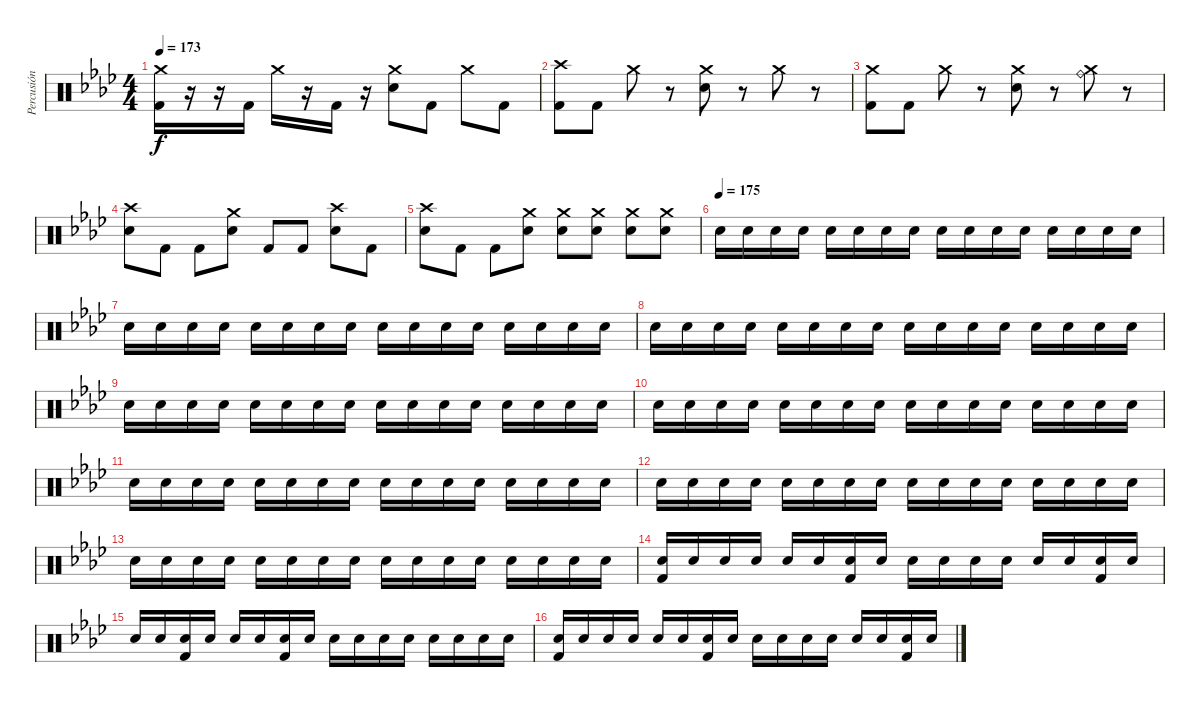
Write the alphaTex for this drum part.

\track ("Percusión" "Percusión") {instrument percussion}
\staff {score}
\articulation defaults
\ts (4 4)
\tempo 173
\clef neutral
\ks fminor
("Kick (hit) 2" "Crash medium (hit)").16{dy f} r.16 r.16 "Kick (hit) 2".16 "Crash medium (hit)".16 r.16 "Kick (hit) 2".16 r.16 ("Snare (hit) 2" "Crash medium (hit)").8 "Kick (hit) 2".8 "Crash medium (hit)".8 "Kick (hit) 2".8 |
("Kick (hit) 2" "Crash high (hit)").8 "Kick (hit) 2".8 "Crash medium (hit)".8 r.8 ("Snare (hit) 2" "Crash medium (hit)").8 r.8 "Crash medium (hit)".8 r.8 |
("Kick (hit) 2" "Crash medium (hit)").8 "Kick (hit) 2".8 "Crash medium (hit)".8 r.8 ("Snare (hit) 2" "Crash medium (hit)").8 r.8 ("Ride (bell)" "Crash medium (hit)").8 r.8 |
("Snare (hit) 2" "Crash high (hit)").8 "Kick (hit) 2".8 "Kick (hit) 2".8 ("Snare (hit) 2" "Crash medium (hit)").8 "Kick (hit) 2".8 "Kick (hit) 2".8 ("Snare (hit) 2" "Crash high (hit)").8 "Kick (hit) 2".8 |
("Snare (hit) 2" "Crash high (hit)").8 "Kick (hit) 2".8 "Kick (hit) 2".8 ("Snare (hit) 2" "Crash medium (hit)").8 ("Snare (hit) 2" "Crash medium (hit)").8 ("Snare (hit) 2" "Crash medium (hit)").8 ("Snare (hit) 2" "Crash medium (hit)").8 ("Snare (hit) 2" "Crash medium (hit)").8 |
\tempo (175)
"Snare (hit) 2".16 "Snare (hit) 2".16{volume 6} "Snare (hit) 2".16 "Snare (hit) 2".16 "Snare (hit) 2".16 "Snare (hit) 2".16 "Snare (hit) 2".16{volume 11} "Snare (hit) 2".16{volume 6} "Snare (hit) 2".16 "Snare (hit) 2".16 "Snare (hit) 2".16 "Snare (hit) 2".16 "Snare (hit) 2".16{volume 11} "Snare (hit) 2".16{volume 6} "Snare (hit) 2".16 "Snare (hit) 2".16 |
"Snare (hit) 2".16 "Snare (hit) 2".16 "Snare (hit) 2".16{volume 11} "Snare (hit) 2".16{volume 6} "Snare (hit) 2".16 "Snare (hit) 2".16 "Snare (hit) 2".16 "Snare (hit) 2".16 "Snare (hit) 2".16{volume 11} "Snare (hit) 2".16{volume 6} "Snare (hit) 2".16 "Snare (hit) 2".16 "Snare (hit) 2".16 "Snare (hit) 2".16 "Snare (hit) 2".16 "Snare (hit) 2".16 |
"Snare (hit) 2".16{volume 11} "Snare (hit) 2".16{volume 6} "Snare (hit) 2".16 "Snare (hit) 2".16 "Snare (hit) 2".16 "Snare (hit) 2".16 "Snare (hit) 2".16{volume 11} "Snare (hit) 2".16{volume 6} "Snare (hit) 2".16 "Snare (hit) 2".16 "Snare (hit) 2".16 "Snare (hit) 2".16 "Snare (hit) 2".16{volume 11} "Snare (hit) 2".16{volume 6} "Snare (hit) 2".16 "Snare (hit) 2".16 |
"Snare (hit) 2".16 "Snare (hit) 2".16 "Snare (hit) 2".16{volume 11} "Snare (hit) 2".16{volume 6} "Snare (hit) 2".16 "Snare (hit) 2".16 "Snare (hit) 2".16 "Snare (hit) 2".16 "Snare (hit) 2".16{volume 11} "Snare (hit) 2".16{volume 6} "Snare (hit) 2".16 "Snare (hit) 2".16 "Snare (hit) 2".16{volume 11} "Snare (hit) 2".16 "Snare (hit) 2".16{volume 6} "Snare (hit) 2".16{volume 11} |
"Snare (hit) 2".16 "Snare (hit) 2".16{volume 6} "Snare (hit) 2".16 "Snare (hit) 2".16 "Snare (hit) 2".16 "Snare (hit) 2".16 "Snare (hit) 2".16{volume 11} "Snare (hit) 2".16{volume 6} "Snare (hit) 2".16 "Snare (hit) 2".16 "Snare (hit) 2".16 "Snare (hit) 2".16 "Snare (hit) 2".16{volume 11} "Snare (hit) 2".16{volume 6} "Snare (hit) 2".16 "Snare (hit) 2".16 |
"Snare (hit) 2".16 "Snare (hit) 2".16 "Snare (hit) 2".16{volume 11} "Snare (hit) 2".16{volume 6} "Snare (hit) 2".16 "Snare (hit) 2".16 "Snare (hit) 2".16 "Snare (hit) 2".16 "Snare (hit) 2".16{volume 11} "Snare (hit) 2".16{volume 6} "Snare (hit) 2".16 "Snare (hit) 2".16 "Snare (hit) 2".16 "Snare (hit) 2".16 "Snare (hit) 2".16 "Snare (hit) 2".16 |
"Snare (hit) 2".16{volume 11} "Snare (hit) 2".16{volume 6} "Snare (hit) 2".16 "Snare (hit) 2".16 "Snare (hit) 2".16 "Snare (hit) 2".16 "Snare (hit) 2".16{volume 11} "Snare (hit) 2".16{volume 6} "Snare (hit) 2".16 "Snare (hit) 2".16 "Snare (hit) 2".16 "Snare (hit) 2".16 "Snare (hit) 2".16{volume 11} "Snare (hit) 2".16{volume 6} "Snare (hit) 2".16 "Snare (hit) 2".16 |
"Snare (hit) 2".16 "Snare (hit) 2".16 "Snare (hit) 2".16{volume 11} "Snare (hit) 2".16{volume 6} "Snare (hit) 2".16 "Snare (hit) 2".16 "Snare (hit) 2".16 "Snare (hit) 2".16 "Snare (hit) 2".16{volume 11} "Snare (hit) 2".16{volume 6} "Snare (hit) 2".16 "Snare (hit) 2".16 "Snare (hit) 2".16{volume 11} "Snare (hit) 2".16 "Snare (hit) 2".16{volume 6} "Snare (hit) 2".16{volume 11} |
("Kick (hit) 2" "Snare (hit) 2").16{volume 6} "Snare (hit) 2".16 "Snare (hit) 2".16 "Snare (hit) 2".16 "Snare (hit) 2".16 "Snare (hit) 2".16 ("Kick (hit) 2" "Snare (hit) 2").16 "Snare (hit) 2".16 "Snare (hit) 2".16{volume 11} "Snare (hit) 2".16{volume 6} "Snare (hit) 2".16 "Snare (hit) 2".16 "Snare (hit) 2".16 "Snare (hit) 2".16 ("Kick (hit) 2" "Snare (hit) 2").16 "Snare (hit) 2".16 |
"Snare (hit) 2".16 "Snare (hit) 2".16 ("Kick (hit) 2" "Snare (hit) 2").16 "Snare (hit) 2".16 "Snare (hit) 2".16 "Snare (hit) 2".16 ("Kick (hit) 2" "Snare (hit) 2").16 "Snare (hit) 2".16 "Snare (hit) 2".16{volume 11} "Snare (hit) 2".16{volume 6} "Snare (hit) 2".16 "Snare (hit) 2".16 "Snare (hit) 2".16 "Snare (hit) 2".16 "Snare (hit) 2".16 "Snare (hit) 2".16 |
("Kick (hit) 2" "Snare (hit) 2").16{volume 6} "Snare (hit) 2".16 "Snare (hit) 2".16 "Snare (hit) 2".16 "Snare (hit) 2".16 "Snare (hit) 2".16 ("Kick (hit) 2" "Snare (hit) 2").16 "Snare (hit) 2".16 "Snare (hit) 2".16{volume 11} "Snare (hit) 2".16{volume 6} "Snare (hit) 2".16 "Snare (hit) 2".16 "Snare (hit) 2".16 "Snare (hit) 2".16 ("Kick (hit) 2" "Snare (hit) 2").16 "Snare (hit) 2".16
